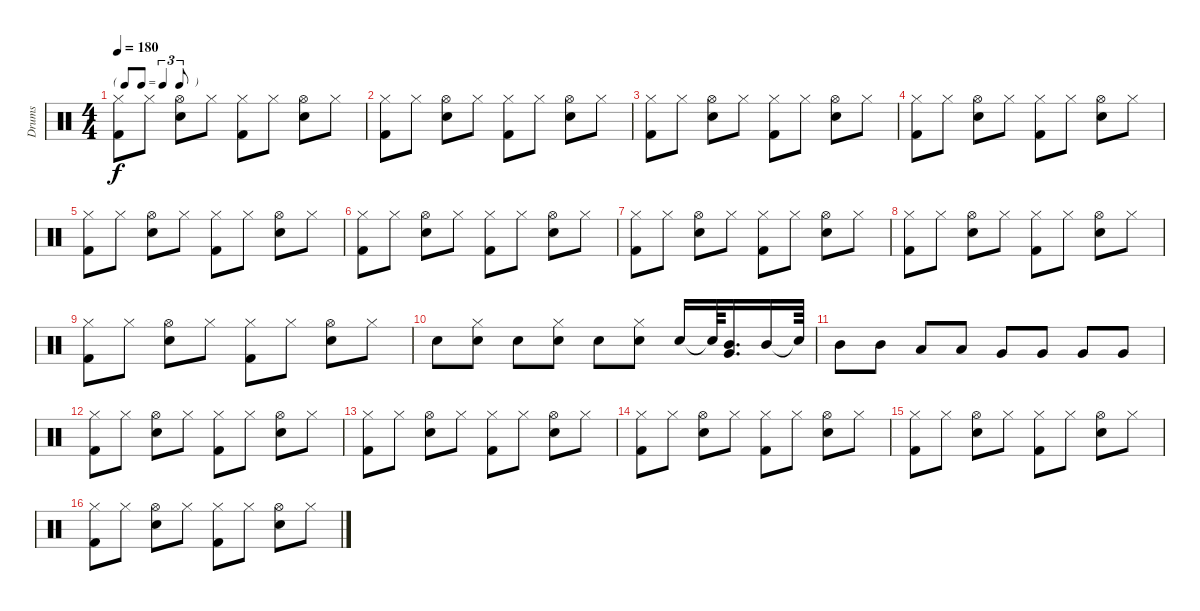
\track ("Drums" "Drums") {instrument percussion}
\staff {score}
\articulation defaults
\ts (4 4)
\tf triplet8th
\tempo 180
\clef neutral
\ks c
("Hi-Hat (closed)" "Kick (hit) 2").8{dy f} "Hi-Hat (closed)".8 ("Hi-Hat (open)" "Snare (hit) 2").8 "Hi-Hat (closed)".8 ("Hi-Hat (closed)" "Kick (hit) 2").8 "Hi-Hat (closed)".8 ("Hi-Hat (open)" "Snare (hit) 2").8 "Hi-Hat (closed)".8 |
("Hi-Hat (closed)" "Kick (hit) 2").8 "Hi-Hat (closed)".8 ("Hi-Hat (open)" "Snare (hit) 2").8 "Hi-Hat (closed)".8 ("Hi-Hat (closed)" "Kick (hit) 2").8 "Hi-Hat (closed)".8 ("Hi-Hat (open)" "Snare (hit) 2").8 "Hi-Hat (closed)".8 |
("Hi-Hat (closed)" "Kick (hit) 2").8 "Hi-Hat (closed)".8 ("Hi-Hat (open)" "Snare (hit) 2").8 "Hi-Hat (closed)".8 ("Hi-Hat (closed)" "Kick (hit) 2").8 "Hi-Hat (closed)".8 ("Hi-Hat (open)" "Snare (hit) 2").8 "Hi-Hat (closed)".8 |
("Hi-Hat (closed)" "Kick (hit) 2").8 "Hi-Hat (closed)".8 ("Hi-Hat (open)" "Snare (hit) 2").8 "Hi-Hat (closed)".8 ("Hi-Hat (closed)" "Kick (hit) 2").8 "Hi-Hat (closed)".8 ("Hi-Hat (open)" "Snare (hit) 2").8 "Hi-Hat (closed)".8 |
("Hi-Hat (closed)" "Kick (hit) 2").8 "Hi-Hat (closed)".8 ("Hi-Hat (open)" "Snare (hit) 2").8 "Hi-Hat (closed)".8 ("Hi-Hat (closed)" "Kick (hit) 2").8 "Hi-Hat (closed)".8 ("Hi-Hat (open)" "Snare (hit) 2").8 "Hi-Hat (closed)".8 |
("Hi-Hat (closed)" "Kick (hit) 2").8 "Hi-Hat (closed)".8 ("Hi-Hat (open)" "Snare (hit) 2").8 "Hi-Hat (closed)".8 ("Hi-Hat (closed)" "Kick (hit) 2").8 "Hi-Hat (closed)".8 ("Hi-Hat (open)" "Snare (hit) 2").8 "Hi-Hat (closed)".8 |
("Hi-Hat (closed)" "Kick (hit) 2").8 "Hi-Hat (closed)".8 ("Hi-Hat (open)" "Snare (hit) 2").8 "Hi-Hat (closed)".8 ("Hi-Hat (closed)" "Kick (hit) 2").8 "Hi-Hat (closed)".8 ("Hi-Hat (open)" "Snare (hit) 2").8 "Hi-Hat (closed)".8 |
("Hi-Hat (closed)" "Kick (hit) 2").8 "Hi-Hat (closed)".8 ("Hi-Hat (open)" "Snare (hit) 2").8 "Hi-Hat (closed)".8 ("Hi-Hat (closed)" "Kick (hit) 2").8 "Hi-Hat (closed)".8 ("Hi-Hat (open)" "Snare (hit) 2").8 "Hi-Hat (closed)".8 |
("Hi-Hat (closed)" "Kick (hit) 2").8 "Hi-Hat (closed)".8 ("Hi-Hat (open)" "Snare (hit) 2").8 "Hi-Hat (closed)".8 ("Hi-Hat (closed)" "Kick (hit) 2").8 "Hi-Hat (closed)".8 ("Hi-Hat (open)" "Snare (hit) 2").8 "Hi-Hat (closed)".8 |
"Snare (hit) 2".8 ("Hi-Hat (closed)" "Snare (hit) 2").8 "Snare (hit) 2".8 ("Hi-Hat (closed)" "Snare (hit) 2").8 "Snare (hit) 2".8 ("Hi-Hat (closed)" "Snare (hit) 2").8 "Snare (hit) 2".16 "Snare (hit)"{t}.64 ("Mid Tom (hit)" "Very Low Tom (hit)").16{d} "Mid Tom (hit)".16 "Snare (hit)"{t}.64 |
"Mid Tom (hit)".8 "Mid Tom (hit)".8 "Low Tom (hit)".8 "Low Tom (hit)".8 "Very Low Tom (hit)".8 "Very Low Tom (hit)".8 "Very Low Tom (hit)".8 "Very Low Tom (hit)".8 |
("Hi-Hat (closed)" "Kick (hit) 2").8 "Hi-Hat (closed)".8 ("Hi-Hat (open)" "Snare (hit) 2").8 "Hi-Hat (closed)".8 ("Hi-Hat (closed)" "Kick (hit) 2").8 "Hi-Hat (closed)".8 ("Hi-Hat (open)" "Snare (hit) 2").8 "Hi-Hat (closed)".8 |
("Hi-Hat (closed)" "Kick (hit) 2").8 "Hi-Hat (closed)".8 ("Hi-Hat (open)" "Snare (hit) 2").8 "Hi-Hat (closed)".8 ("Hi-Hat (closed)" "Kick (hit) 2").8 "Hi-Hat (closed)".8 ("Hi-Hat (open)" "Snare (hit) 2").8 "Hi-Hat (closed)".8 |
("Hi-Hat (closed)" "Kick (hit) 2").8 "Hi-Hat (closed)".8 ("Hi-Hat (open)" "Snare (hit) 2").8 "Hi-Hat (closed)".8 ("Hi-Hat (closed)" "Kick (hit) 2").8 "Hi-Hat (closed)".8 ("Hi-Hat (open)" "Snare (hit) 2").8 "Hi-Hat (closed)".8 |
("Hi-Hat (closed)" "Kick (hit) 2").8 "Hi-Hat (closed)".8 ("Hi-Hat (open)" "Snare (hit) 2").8 "Hi-Hat (closed)".8 ("Hi-Hat (closed)" "Kick (hit) 2").8 "Hi-Hat (closed)".8 ("Hi-Hat (open)" "Snare (hit) 2").8 "Hi-Hat (closed)".8 |
("Hi-Hat (closed)" "Kick (hit) 2").8 "Hi-Hat (closed)".8 ("Hi-Hat (open)" "Snare (hit) 2").8 "Hi-Hat (closed)".8 ("Hi-Hat (closed)" "Kick (hit) 2").8 "Hi-Hat (closed)".8 ("Hi-Hat (open)" "Snare (hit) 2").8 "Hi-Hat (closed)".8
